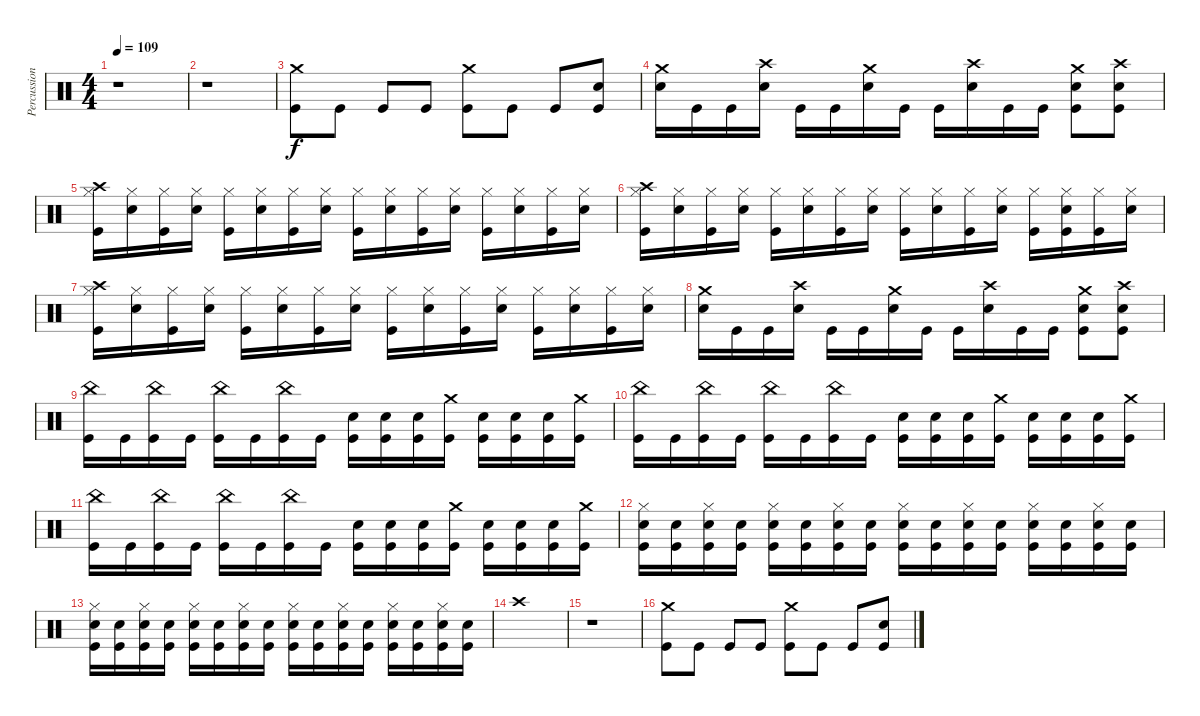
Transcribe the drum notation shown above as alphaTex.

\track ("Percussions" "Percussion") {instrument percussion}
\staff {score}
\articulation defaults
\ts (4 4)
\tempo 109
\clef neutral
\ks c
r.1{dy f} |
r.1 |
("Kick (hit)" "Crash medium (hit)").8 "Kick (hit)".8 "Kick (hit)".8 "Kick (hit)".8 ("Kick (hit)" "Crash medium (hit)").8 "Kick (hit)".8 "Kick (hit)".8 ("Kick (hit)" "Electric Snare (hit)").8 |
("Electric Snare (hit)" "Crash medium (hit)").16 "Kick (hit)".16 "Kick (hit)".16 ("Electric Snare (hit)" "Crash high (hit)").16 "Kick (hit)".16 "Kick (hit)".16 ("Electric Snare (hit)" "Crash medium (hit)").16 "Kick (hit)".16 "Kick (hit)".16 ("Electric Snare (hit)" "Crash high (hit)").16 "Kick (hit)".16 "Kick (hit)".16 ("Kick (hit)" "Electric Snare (hit)" "Crash medium (hit)").8 ("Kick (hit)" "Electric Snare (hit)" "Crash high (hit)").8 |
("Kick (hit)" "Hi-Hat (closed)" "Crash high (hit)").16 ("Hi-Hat (closed)" "Electric Snare (hit)").16 ("Kick (hit)" "Hi-Hat (closed)").16 ("Hi-Hat (closed)" "Electric Snare (hit)").16 ("Kick (hit)" "Hi-Hat (closed)").16 ("Hi-Hat (closed)" "Electric Snare (hit)").16 ("Kick (hit)" "Hi-Hat (closed)").16 ("Hi-Hat (closed)" "Electric Snare (hit)").16 ("Kick (hit)" "Hi-Hat (closed)").16 ("Hi-Hat (closed)" "Electric Snare (hit)").16 ("Kick (hit)" "Hi-Hat (closed)").16 ("Hi-Hat (closed)" "Electric Snare (hit)").16 ("Kick (hit)" "Hi-Hat (closed)").16 ("Hi-Hat (closed)" "Electric Snare (hit)").16 ("Kick (hit)" "Hi-Hat (closed)").16 ("Hi-Hat (closed)" "Electric Snare (hit)").16 |
("Kick (hit)" "Hi-Hat (closed)" "Crash high (hit)").16 ("Hi-Hat (closed)" "Electric Snare (hit)").16 ("Kick (hit)" "Hi-Hat (closed)").16 ("Hi-Hat (closed)" "Electric Snare (hit)").16 ("Kick (hit)" "Hi-Hat (closed)").16 ("Hi-Hat (closed)" "Electric Snare (hit)").16 ("Kick (hit)" "Hi-Hat (closed)").16 ("Hi-Hat (closed)" "Electric Snare (hit)").16 ("Kick (hit)" "Hi-Hat (closed)").16 ("Hi-Hat (closed)" "Electric Snare (hit)").16 ("Kick (hit)" "Hi-Hat (closed)").16 ("Hi-Hat (closed)" "Electric Snare (hit)").16 ("Kick (hit)" "Hi-Hat (closed)").16 ("Kick (hit)" "Hi-Hat (closed)" "Electric Snare (hit)").16 ("Kick (hit)" "Hi-Hat (closed)").16 ("Hi-Hat (closed)" "Electric Snare (hit)").16 |
("Kick (hit)" "Hi-Hat (closed)" "Crash high (hit)").16 ("Hi-Hat (closed)" "Electric Snare (hit)").16 ("Kick (hit)" "Hi-Hat (closed)").16 ("Hi-Hat (closed)" "Electric Snare (hit)").16 ("Kick (hit)" "Hi-Hat (closed)").16 ("Hi-Hat (closed)" "Electric Snare (hit)").16 ("Kick (hit)" "Hi-Hat (closed)").16 ("Hi-Hat (closed)" "Electric Snare (hit)").16 ("Kick (hit)" "Hi-Hat (closed)").16 ("Hi-Hat (closed)" "Electric Snare (hit)").16 ("Kick (hit)" "Hi-Hat (closed)").16 ("Hi-Hat (closed)" "Electric Snare (hit)").16 ("Kick (hit)" "Hi-Hat (closed)").16 ("Hi-Hat (closed)" "Electric Snare (hit)").16 ("Kick (hit)" "Hi-Hat (closed)").16 ("Hi-Hat (closed)" "Electric Snare (hit)").16 |
("Electric Snare (hit)" "Crash medium (hit)").16 "Kick (hit)".16 "Kick (hit)".16 ("Electric Snare (hit)" "Crash high (hit)").16 "Kick (hit)".16 "Kick (hit)".16 ("Electric Snare (hit)" "Crash medium (hit)").16 "Kick (hit)".16 "Kick (hit)".16 ("Electric Snare (hit)" "Crash high (hit)").16 "Kick (hit)".16 "Kick (hit)".16 ("Kick (hit)" "Electric Snare (hit)" "Crash medium (hit)").8 ("Kick (hit)" "Electric Snare (hit)" "Crash high (hit)").8 |
("Kick (hit)" "China (hit)").16 "Kick (hit)".16 ("Kick (hit)" "China (hit)").16 "Kick (hit)".16 ("Kick (hit)" "China (hit)").16 "Kick (hit)".16 ("Kick (hit)" "China (hit)").16 "Kick (hit)".16 ("Kick (hit)" "Electric Snare (hit)").16 ("Kick (hit)" "Electric Snare (hit)").16 ("Kick (hit)" "Electric Snare (hit)").16 ("Kick (hit)" "Crash medium (hit)").16 ("Kick (hit)" "Electric Snare (hit)").16 ("Kick (hit)" "Electric Snare (hit)").16 ("Kick (hit)" "Electric Snare (hit)").16 ("Kick (hit)" "Crash medium (hit)").16 |
("Kick (hit)" "China (hit)").16 "Kick (hit)".16 ("Kick (hit)" "China (hit)").16 "Kick (hit)".16 ("Kick (hit)" "China (hit)").16 "Kick (hit)".16 ("Kick (hit)" "China (hit)").16 "Kick (hit)".16 ("Kick (hit)" "Electric Snare (hit)").16 ("Kick (hit)" "Electric Snare (hit)").16 ("Kick (hit)" "Electric Snare (hit)").16 ("Kick (hit)" "Crash medium (hit)").16 ("Kick (hit)" "Electric Snare (hit)").16 ("Kick (hit)" "Electric Snare (hit)").16 ("Kick (hit)" "Electric Snare (hit)").16 ("Kick (hit)" "Crash medium (hit)").16 |
("Kick (hit)" "China (hit)").16 "Kick (hit)".16 ("Kick (hit)" "China (hit)").16 "Kick (hit)".16 ("Kick (hit)" "China (hit)").16 "Kick (hit)".16 ("Kick (hit)" "China (hit)").16 "Kick (hit)".16 ("Kick (hit)" "Electric Snare (hit)").16 ("Kick (hit)" "Electric Snare (hit)").16 ("Kick (hit)" "Electric Snare (hit)").16 ("Kick (hit)" "Crash medium (hit)").16 ("Kick (hit)" "Electric Snare (hit)").16 ("Kick (hit)" "Electric Snare (hit)").16 ("Kick (hit)" "Electric Snare (hit)").16 ("Kick (hit)" "Crash medium (hit)").16 |
("Electric Snare (hit)" "Hi-Hat (closed)" "Kick (hit)").16 ("Electric Snare (hit)" "Kick (hit)").16 ("Electric Snare (hit)" "Hi-Hat (closed)" "Kick (hit)").16 ("Electric Snare (hit)" "Kick (hit)").16 ("Electric Snare (hit)" "Hi-Hat (closed)" "Kick (hit)").16 ("Electric Snare (hit)" "Kick (hit)").16 ("Electric Snare (hit)" "Hi-Hat (closed)" "Kick (hit)").16 ("Electric Snare (hit)" "Kick (hit)").16 ("Electric Snare (hit)" "Hi-Hat (closed)" "Kick (hit)").16 ("Electric Snare (hit)" "Kick (hit)").16 ("Electric Snare (hit)" "Hi-Hat (closed)" "Kick (hit)").16 ("Electric Snare (hit)" "Kick (hit)").16 ("Electric Snare (hit)" "Hi-Hat (closed)" "Kick (hit)").16 ("Electric Snare (hit)" "Kick (hit)").16 ("Electric Snare (hit)" "Hi-Hat (closed)" "Kick (hit)").16 ("Electric Snare (hit)" "Kick (hit)").16 |
("Electric Snare (hit)" "Hi-Hat (closed)" "Kick (hit)").16 ("Electric Snare (hit)" "Kick (hit)").16 ("Electric Snare (hit)" "Hi-Hat (closed)" "Kick (hit)").16 ("Electric Snare (hit)" "Kick (hit)").16 ("Electric Snare (hit)" "Hi-Hat (closed)" "Kick (hit)").16 ("Electric Snare (hit)" "Kick (hit)").16 ("Electric Snare (hit)" "Hi-Hat (closed)" "Kick (hit)").16 ("Electric Snare (hit)" "Kick (hit)").16 ("Electric Snare (hit)" "Hi-Hat (closed)" "Kick (hit)").16 ("Electric Snare (hit)" "Kick (hit)").16 ("Electric Snare (hit)" "Hi-Hat (closed)" "Kick (hit)").16 ("Electric Snare (hit)" "Kick (hit)").16 ("Electric Snare (hit)" "Hi-Hat (closed)" "Kick (hit)").16 ("Electric Snare (hit)" "Kick (hit)").16 ("Electric Snare (hit)" "Hi-Hat (closed)" "Kick (hit)").16 ("Electric Snare (hit)" "Kick (hit)").16 |
"Crash high (hit)".1 |
r.1 |
("Kick (hit)" "Crash medium (hit)").8 "Kick (hit)".8 "Kick (hit)".8 "Kick (hit)".8 ("Kick (hit)" "Crash medium (hit)").8 "Kick (hit)".8 "Kick (hit)".8 ("Kick (hit)" "Electric Snare (hit)").8
